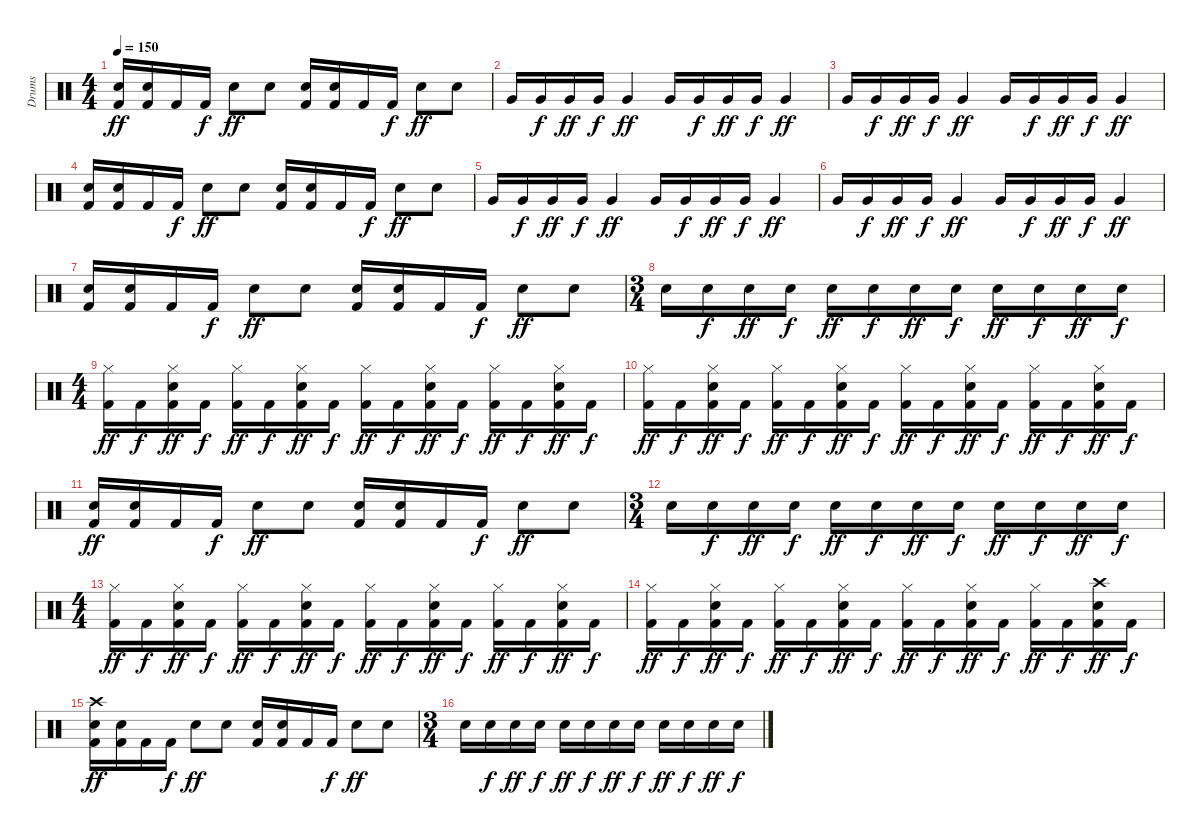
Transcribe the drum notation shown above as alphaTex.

\track ("Drums" "Drums") {instrument percussion}
\staff {score}
\articulation defaults
\ts (4 4)
\tempo 150
\clef neutral
\ks c
("Snare (hit) 2" "Kick (hit) 2").16{dy ff} ("Kick (hit) 2" "Snare (hit) 2").16 "Kick (hit) 2".16 "Kick (hit) 2".16{dy f} "Snare (hit) 2".8{dy ff} "Snare (hit) 2".8 ("Snare (hit) 2" "Kick (hit) 2").16 ("Kick (hit) 2" "Snare (hit) 2").16 "Kick (hit) 2".16 "Kick (hit) 2".16{dy f} "Snare (hit) 2".8{dy ff} "Snare (hit) 2".8 |
"Very Low Tom (hit)".16 "Very Low Tom (hit)".16{dy f} "Very Low Tom (hit)".16{dy ff} "Very Low Tom (hit)".16{dy f} "Very Low Tom (hit)".4{dy ff} "Very Low Tom (hit)".16 "Very Low Tom (hit)".16{dy f} "Very Low Tom (hit)".16{dy ff} "Very Low Tom (hit)".16{dy f} "Very Low Tom (hit)".4{dy ff} |
"Very Low Tom (hit)".16 "Very Low Tom (hit)".16{dy f} "Very Low Tom (hit)".16{dy ff} "Very Low Tom (hit)".16{dy f} "Very Low Tom (hit)".4{dy ff} "Very Low Tom (hit)".16 "Very Low Tom (hit)".16{dy f} "Very Low Tom (hit)".16{dy ff} "Very Low Tom (hit)".16{dy f} "Very Low Tom (hit)".4{dy ff} |
("Snare (hit) 2" "Kick (hit) 2").16 ("Kick (hit) 2" "Snare (hit) 2").16 "Kick (hit) 2".16 "Kick (hit) 2".16{dy f} "Snare (hit) 2".8{dy ff} "Snare (hit) 2".8 ("Snare (hit) 2" "Kick (hit) 2").16 ("Kick (hit) 2" "Snare (hit) 2").16 "Kick (hit) 2".16 "Kick (hit) 2".16{dy f} "Snare (hit) 2".8{dy ff} "Snare (hit) 2".8 |
"Very Low Tom (hit)".16 "Very Low Tom (hit)".16{dy f} "Very Low Tom (hit)".16{dy ff} "Very Low Tom (hit)".16{dy f} "Very Low Tom (hit)".4{dy ff} "Very Low Tom (hit)".16 "Very Low Tom (hit)".16{dy f} "Very Low Tom (hit)".16{dy ff} "Very Low Tom (hit)".16{dy f} "Very Low Tom (hit)".4{dy ff} |
"Very Low Tom (hit)".16 "Very Low Tom (hit)".16{dy f} "Very Low Tom (hit)".16{dy ff} "Very Low Tom (hit)".16{dy f} "Very Low Tom (hit)".4{dy ff} "Very Low Tom (hit)".16 "Very Low Tom (hit)".16{dy f} "Very Low Tom (hit)".16{dy ff} "Very Low Tom (hit)".16{dy f} "Very Low Tom (hit)".4{dy ff} |
("Snare (hit) 2" "Kick (hit) 2").16 ("Kick (hit) 2" "Snare (hit) 2").16 "Kick (hit) 2".16 "Kick (hit) 2".16{dy f} "Snare (hit) 2".8{dy ff} "Snare (hit) 2".8 ("Snare (hit) 2" "Kick (hit) 2").16 ("Kick (hit) 2" "Snare (hit) 2").16 "Kick (hit) 2".16 "Kick (hit) 2".16{dy f} "Snare (hit) 2".8{dy ff} "Snare (hit) 2".8 |
\ts (3 4)
"Snare (hit) 2".16 "Snare (hit) 2".16{dy f} "Snare (hit) 2".16{dy ff} "Snare (hit) 2".16{dy f} "Snare (hit) 2".16{dy ff} "Snare (hit) 2".16{dy f} "Snare (hit) 2".16{dy ff} "Snare (hit) 2".16{dy f} "Snare (hit) 2".16{dy ff} "Snare (hit) 2".16{dy f} "Snare (hit) 2".16{dy ff} "Snare (hit) 2".16{dy f} |
\ts (4 4)
("Hi-Hat (closed)" "Kick (hit) 2").16{dy ff} "Kick (hit) 2".16{dy f} ("Hi-Hat (closed)" "Snare (hit) 2" "Kick (hit) 2").16{dy ff} "Kick (hit) 2".16{dy f} ("Hi-Hat (closed)" "Kick (hit) 2").16{dy ff} "Kick (hit) 2".16{dy f} ("Hi-Hat (closed)" "Snare (hit) 2" "Kick (hit) 2").16{dy ff} "Kick (hit) 2".16{dy f} ("Hi-Hat (closed)" "Kick (hit) 2").16{dy ff} "Kick (hit) 2".16{dy f} ("Hi-Hat (closed)" "Snare (hit) 2" "Kick (hit) 2").16{dy ff} "Kick (hit) 2".16{dy f} ("Hi-Hat (closed)" "Kick (hit) 2").16{dy ff} "Kick (hit) 2".16{dy f} ("Hi-Hat (closed)" "Snare (hit) 2" "Kick (hit) 2").16{dy ff} "Kick (hit) 2".16{dy f} |
("Hi-Hat (closed)" "Kick (hit) 2").16{dy ff} "Kick (hit) 2".16{dy f} ("Hi-Hat (closed)" "Snare (hit) 2" "Kick (hit) 2").16{dy ff} "Kick (hit) 2".16{dy f} ("Hi-Hat (closed)" "Kick (hit) 2").16{dy ff} "Kick (hit) 2".16{dy f} ("Hi-Hat (closed)" "Snare (hit) 2" "Kick (hit) 2").16{dy ff} "Kick (hit) 2".16{dy f} ("Hi-Hat (closed)" "Kick (hit) 2").16{dy ff} "Kick (hit) 2".16{dy f} ("Hi-Hat (closed)" "Snare (hit) 2" "Kick (hit) 2").16{dy ff} "Kick (hit) 2".16{dy f} ("Hi-Hat (closed)" "Kick (hit) 2").16{dy ff} "Kick (hit) 2".16{dy f} ("Hi-Hat (closed)" "Snare (hit) 2" "Kick (hit) 2").16{dy ff} "Kick (hit) 2".16{dy f} |
("Snare (hit) 2" "Kick (hit) 2").16{dy ff} ("Kick (hit) 2" "Snare (hit) 2").16 "Kick (hit) 2".16 "Kick (hit) 2".16{dy f} "Snare (hit) 2".8{dy ff} "Snare (hit) 2".8 ("Snare (hit) 2" "Kick (hit) 2").16 ("Kick (hit) 2" "Snare (hit) 2").16 "Kick (hit) 2".16 "Kick (hit) 2".16{dy f} "Snare (hit) 2".8{dy ff} "Snare (hit) 2".8 |
\ts (3 4)
"Snare (hit) 2".16 "Snare (hit) 2".16{dy f} "Snare (hit) 2".16{dy ff} "Snare (hit) 2".16{dy f} "Snare (hit) 2".16{dy ff} "Snare (hit) 2".16{dy f} "Snare (hit) 2".16{dy ff} "Snare (hit) 2".16{dy f} "Snare (hit) 2".16{dy ff} "Snare (hit) 2".16{dy f} "Snare (hit) 2".16{dy ff} "Snare (hit) 2".16{dy f} |
\ts (4 4)
("Hi-Hat (closed)" "Kick (hit) 2").16{dy ff} "Kick (hit) 2".16{dy f} ("Hi-Hat (closed)" "Snare (hit) 2" "Kick (hit) 2").16{dy ff} "Kick (hit) 2".16{dy f} ("Hi-Hat (closed)" "Kick (hit) 2").16{dy ff} "Kick (hit) 2".16{dy f} ("Hi-Hat (closed)" "Snare (hit) 2" "Kick (hit) 2").16{dy ff} "Kick (hit) 2".16{dy f} ("Hi-Hat (closed)" "Kick (hit) 2").16{dy ff} "Kick (hit) 2".16{dy f} ("Hi-Hat (closed)" "Snare (hit) 2" "Kick (hit) 2").16{dy ff} "Kick (hit) 2".16{dy f} ("Hi-Hat (closed)" "Kick (hit) 2").16{dy ff} "Kick (hit) 2".16{dy f} ("Hi-Hat (closed)" "Snare (hit) 2" "Kick (hit) 2").16{dy ff} "Kick (hit) 2".16{dy f} |
("Hi-Hat (closed)" "Kick (hit) 2").16{dy ff} "Kick (hit) 2".16{dy f} ("Hi-Hat (closed)" "Snare (hit) 2" "Kick (hit) 2").16{dy ff} "Kick (hit) 2".16{dy f} ("Hi-Hat (closed)" "Kick (hit) 2").16{dy ff} "Kick (hit) 2".16{dy f} ("Hi-Hat (closed)" "Snare (hit) 2" "Kick (hit) 2").16{dy ff} "Kick (hit) 2".16{dy f} ("Hi-Hat (closed)" "Kick (hit) 2").16{dy ff} "Kick (hit) 2".16{dy f} ("Hi-Hat (closed)" "Snare (hit) 2" "Kick (hit) 2").16{dy ff} "Kick (hit) 2".16{dy f} ("Hi-Hat (closed)" "Kick (hit) 2").16{dy ff} "Kick (hit) 2".16{dy f} ("Kick (hit) 2" "Crash high (hit)" "Snare (hit) 2").16{dy ff} "Kick (hit) 2".16{dy f} |
("Kick (hit) 2" "Crash high (hit)" "Snare (hit) 2").16{dy ff} ("Kick (hit) 2" "Snare (hit) 2").16 "Kick (hit) 2".16 "Kick (hit) 2".16{dy f} "Snare (hit) 2".8{dy ff} "Snare (hit) 2".8 ("Snare (hit) 2" "Kick (hit) 2").16 ("Kick (hit) 2" "Snare (hit) 2").16 "Kick (hit) 2".16 "Kick (hit) 2".16{dy f} "Snare (hit) 2".8{dy ff} "Snare (hit) 2".8 |
\ts (3 4)
"Snare (hit) 2".16 "Snare (hit) 2".16{dy f} "Snare (hit) 2".16{dy ff} "Snare (hit) 2".16{dy f} "Snare (hit) 2".16{dy ff} "Snare (hit) 2".16{dy f} "Snare (hit) 2".16{dy ff} "Snare (hit) 2".16{dy f} "Snare (hit) 2".16{dy ff} "Snare (hit) 2".16{dy f} "Snare (hit) 2".16{dy ff} "Snare (hit) 2".16{dy f}
